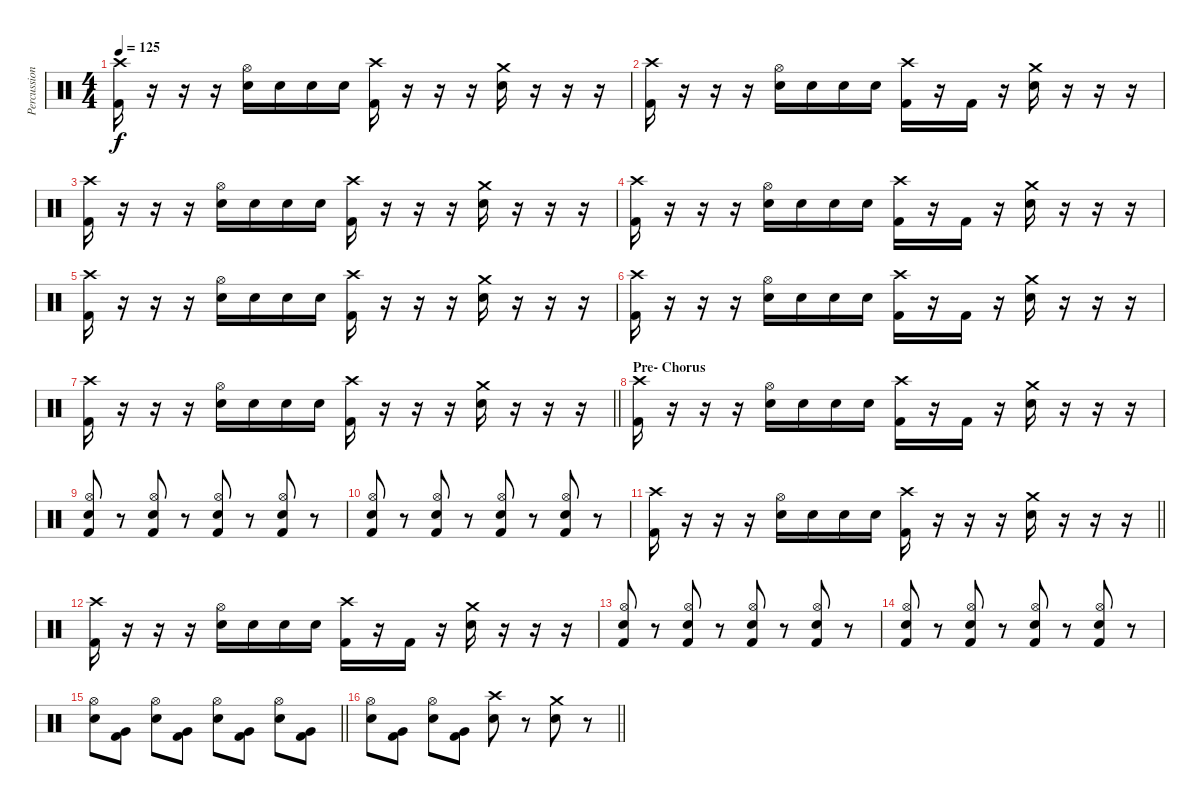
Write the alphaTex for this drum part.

\track ("Percussion" "Percussion") {instrument percussion}
\staff {score}
\articulation defaults
\ts (4 4)
\tempo 125
\clef neutral
\ks c
("Crash high (hit)" "Kick (hit) 2").16{dy f} r.16 r.16 r.16 ("Hi-Hat (open)" "Snare (hit) 2").16 "Snare (hit) 2".16 "Snare (hit) 2".16 "Snare (hit) 2".16 ("Crash high (hit)" "Kick (hit) 2").16 r.16 r.16 r.16 ("Crash medium (hit)" "Snare (hit) 2").16 r.16 r.16 r.16 |
("Crash high (hit)" "Kick (hit) 2").16 r.16 r.16 r.16 ("Hi-Hat (open)" "Snare (hit) 2").16 "Snare (hit) 2".16 "Snare (hit) 2".16 "Snare (hit) 2".16 ("Crash high (hit)" "Kick (hit) 2").16 r.16 "Kick (hit) 2".16 r.16 ("Crash medium (hit)" "Snare (hit) 2").16 r.16 r.16 r.16 |
("Crash high (hit)" "Kick (hit) 2").16 r.16 r.16 r.16 ("Hi-Hat (open)" "Snare (hit) 2").16 "Snare (hit) 2".16 "Snare (hit) 2".16 "Snare (hit) 2".16 ("Crash high (hit)" "Kick (hit) 2").16 r.16 r.16 r.16 ("Crash medium (hit)" "Snare (hit) 2").16 r.16 r.16 r.16 |
("Crash high (hit)" "Kick (hit) 2").16 r.16 r.16 r.16 ("Hi-Hat (open)" "Snare (hit) 2").16 "Snare (hit) 2".16 "Snare (hit) 2".16 "Snare (hit) 2".16 ("Crash high (hit)" "Kick (hit) 2").16 r.16 "Kick (hit) 2".16 r.16 ("Crash medium (hit)" "Snare (hit) 2").16 r.16 r.16 r.16 |
("Crash high (hit)" "Kick (hit) 2").16 r.16 r.16 r.16 ("Hi-Hat (open)" "Snare (hit) 2").16 "Snare (hit) 2".16 "Snare (hit) 2".16 "Snare (hit) 2".16 ("Crash high (hit)" "Kick (hit) 2").16 r.16 r.16 r.16 ("Crash medium (hit)" "Snare (hit) 2").16 r.16 r.16 r.16 |
("Crash high (hit)" "Kick (hit) 2").16 r.16 r.16 r.16 ("Hi-Hat (open)" "Snare (hit) 2").16 "Snare (hit) 2".16 "Snare (hit) 2".16 "Snare (hit) 2".16 ("Crash high (hit)" "Kick (hit) 2").16 r.16 "Kick (hit) 2".16 r.16 ("Crash medium (hit)" "Snare (hit) 2").16 r.16 r.16 r.16 |
\barLineRight lightlight
("Crash high (hit)" "Kick (hit) 2").16 r.16 r.16 r.16 ("Hi-Hat (open)" "Snare (hit) 2").16 "Snare (hit) 2".16 "Snare (hit) 2".16 "Snare (hit) 2".16 ("Crash high (hit)" "Kick (hit) 2").16 r.16 r.16 r.16 ("Crash medium (hit)" "Snare (hit) 2").16 r.16 r.16 r.16 |
\section ("" "Pre- Chorus")
("Crash high (hit)" "Kick (hit) 2").16 r.16 r.16 r.16 ("Hi-Hat (open)" "Snare (hit) 2").16 "Snare (hit) 2".16 "Snare (hit) 2".16 "Snare (hit) 2".16 ("Crash high (hit)" "Kick (hit) 2").16 r.16 "Kick (hit) 2".16 r.16 ("Crash medium (hit)" "Snare (hit) 2").16 r.16 r.16 r.16 |
("Hi-Hat (open)" "Snare (hit) 2" "Kick (hit) 2").8 r.8 ("Hi-Hat (open)" "Snare (hit) 2" "Kick (hit) 2").8 r.8 ("Hi-Hat (open)" "Snare (hit) 2" "Kick (hit) 2").8 r.8 ("Hi-Hat (open)" "Snare (hit) 2" "Kick (hit) 2").8 r.8 |
("Hi-Hat (open)" "Snare (hit) 2" "Kick (hit) 2").8 r.8 ("Hi-Hat (open)" "Snare (hit) 2" "Kick (hit) 2").8 r.8 ("Hi-Hat (open)" "Snare (hit) 2" "Kick (hit) 2").8 r.8 ("Hi-Hat (open)" "Snare (hit) 2" "Kick (hit) 2").8 r.8 |
\barLineRight lightlight
("Crash high (hit)" "Kick (hit) 2").16 r.16 r.16 r.16 ("Hi-Hat (open)" "Snare (hit) 2").16 "Snare (hit) 2".16 "Snare (hit) 2".16 "Snare (hit) 2".16 ("Crash high (hit)" "Kick (hit) 2").16 r.16 r.16 r.16 ("Crash medium (hit)" "Snare (hit) 2").16 r.16 r.16 r.16 |
("Crash high (hit)" "Kick (hit) 2").16 r.16 r.16 r.16 ("Hi-Hat (open)" "Snare (hit) 2").16 "Snare (hit) 2".16 "Snare (hit) 2".16 "Snare (hit) 2".16 ("Crash high (hit)" "Kick (hit) 2").16 r.16 "Kick (hit) 2".16 r.16 ("Crash medium (hit)" "Snare (hit) 2").16 r.16 r.16 r.16 |
("Hi-Hat (open)" "Snare (hit) 2" "Kick (hit) 2").8 r.8 ("Hi-Hat (open)" "Snare (hit) 2" "Kick (hit) 2").8 r.8 ("Hi-Hat (open)" "Snare (hit) 2" "Kick (hit) 2").8 r.8 ("Hi-Hat (open)" "Snare (hit) 2" "Kick (hit) 2").8 r.8 |
("Hi-Hat (open)" "Snare (hit) 2" "Kick (hit) 2").8 r.8 ("Hi-Hat (open)" "Snare (hit) 2" "Kick (hit) 2").8 r.8 ("Hi-Hat (open)" "Snare (hit) 2" "Kick (hit) 2").8 r.8 ("Hi-Hat (open)" "Snare (hit) 2" "Kick (hit) 2").8 r.8 |
\barLineRight lightlight
("Hi-Hat (open)" "Snare (hit) 2").8 ("Very Low Tom (hit)" "Kick (hit) 2").8 ("Hi-Hat (open)" "Snare (hit) 2").8 ("Very Low Tom (hit)" "Kick (hit) 2").8 ("Hi-Hat (open)" "Snare (hit) 2").8 ("Very Low Tom (hit)" "Kick (hit) 2").8 ("Hi-Hat (open)" "Snare (hit) 2").8 ("Very Low Tom (hit)" "Kick (hit) 2").8 |
\barLineRight lightlight
("Hi-Hat (open)" "Snare (hit) 2").8 ("Very Low Tom (hit)" "Kick (hit) 2").8 ("Hi-Hat (open)" "Snare (hit) 2").8 ("Very Low Tom (hit)" "Kick (hit) 2").8 ("Crash high (hit)" "Snare (hit) 2").8 r.8 ("Crash medium (hit)" "Snare (hit) 2").8 r.8
